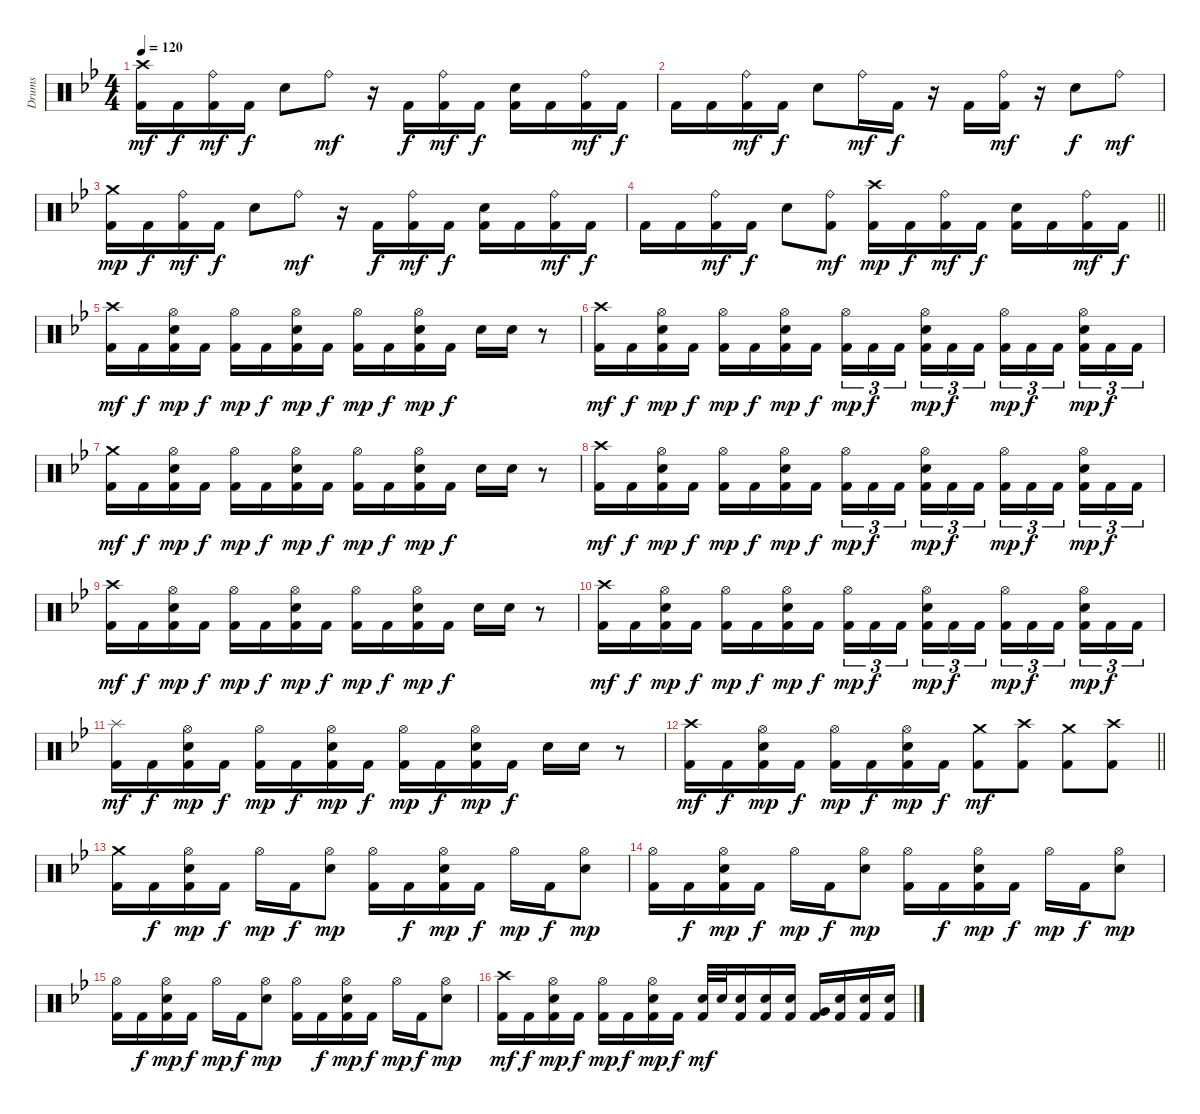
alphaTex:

\track ("Drums" "Drums") {instrument percussion}
\staff {score}
\articulation defaults
\ts (4 4)
\tempo 120
\clef neutral
\ks gminor
("Crash high (hit)" "Kick (hit) 2").16{dy mf} "Kick (hit) 2".16{dy f} ("Ride (bell)" "Kick (hit) 2").16{dy mf} "Kick (hit) 2".16{dy f} "Electric Snare (hit)".8 "Ride (bell)".8{dy mf} r.16 "Kick (hit) 2".16{dy f} ("Ride (bell)" "Kick (hit) 2").16{dy mf} "Kick (hit) 2".16{dy f} ("Electric Snare (hit)" "Kick (hit) 2").16 "Kick (hit) 2".16 ("Ride (bell)" "Kick (hit) 2").16{dy mf} "Kick (hit) 2".16{dy f} |
"Kick (hit) 2".16 "Kick (hit) 2".16 ("Ride (bell)" "Kick (hit) 2").16{dy mf} "Kick (hit) 2".16{dy f} "Electric Snare (hit)".8 "Ride (bell)".16{dy mf} "Kick (hit) 2".16{dy f} r.16 "Kick (hit) 2".16 ("Ride (bell)" "Kick (hit) 2").16{dy mf} r.16 "Electric Snare (hit)".8{dy f} "Ride (bell)".8{dy mf} |
("Crash medium (hit)" "Kick (hit) 2").16{dy mp} "Kick (hit) 2".16{dy f} ("Ride (bell)" "Kick (hit) 2").16{dy mf} "Kick (hit) 2".16{dy f} "Electric Snare (hit)".8 "Ride (bell)".8{dy mf} r.16 "Kick (hit) 2".16{dy f} ("Ride (bell)" "Kick (hit) 2").16{dy mf} "Kick (hit) 2".16{dy f} ("Electric Snare (hit)" "Kick (hit) 2").16 "Kick (hit) 2".16 ("Ride (bell)" "Kick (hit) 2").16{dy mf} "Kick (hit) 2".16{dy f} |
\barLineRight lightlight "Kick (hit) 2".16 "Kick (hit) 2".16
("Ride (bell)" "Kick (hit) 2").16{dy mf} "Kick (hit) 2".16{dy f} "Electric Snare (hit)".8 ("Ride (bell)" "Kick (hit) 2").8{dy mf} ("Crash high (hit)" "Kick (hit) 2").16{dy mp} "Kick (hit) 2".16{dy f} ("Ride (bell)" "Kick (hit) 2").16{dy mf} "Kick (hit) 2".16{dy f} ("Electric Snare (hit)" "Kick (hit) 2").16 "Kick (hit) 2".16 ("Ride (bell)" "Kick (hit) 2").16{dy mf} "Kick (hit) 2".16{dy f} |
\section ("" "")
("Crash high (hit)" "Kick (hit) 2").16{dy mf} "Kick (hit) 2".16{dy f} ("Hi-Hat (open)" "Electric Snare (hit)" "Kick (hit) 2").16{dy mp} "Kick (hit) 2".16{dy f} ("Hi-Hat (open)" "Kick (hit) 2").16{dy mp} "Kick (hit) 2".16{dy f} ("Hi-Hat (open)" "Electric Snare (hit)" "Kick (hit) 2").16{dy mp} "Kick (hit) 2".16{dy f} ("Hi-Hat (open)" "Kick (hit) 2").16{dy mp} "Kick (hit) 2".16{dy f} ("Hi-Hat (open)" "Electric Snare (hit)" "Kick (hit) 2").16{dy mp} "Kick (hit) 2".16{dy f} "Electric Snare (hit)".16 "Electric Snare (hit)".16 r.8 |
("Crash high (hit)" "Kick (hit) 2").16{dy mf} "Kick (hit) 2".16{dy f} ("Hi-Hat (open)" "Electric Snare (hit)" "Kick (hit) 2").16{dy mp} "Kick (hit) 2".16{dy f} ("Hi-Hat (open)" "Kick (hit) 2").16{dy mp} "Kick (hit) 2".16{dy f} ("Hi-Hat (open)" "Electric Snare (hit)" "Kick (hit) 2").16{dy mp} "Kick (hit) 2".16{dy f} ("Hi-Hat (open)" "Kick (hit) 2").16{tu (3 2) dy mp} "Kick (hit) 2".16{tu (3 2) dy f} "Kick (hit) 2".16{tu (3 2) beam splitsecondary} ("Hi-Hat (open)" "Electric Snare (hit)" "Kick (hit) 2").16{tu (3 2) dy mp} "Kick (hit) 2".16{tu (3 2) dy f} "Kick (hit) 2".16{tu (3 2)} ("Hi-Hat (open)" "Kick (hit) 2").16{tu (3 2) dy mp} "Kick (hit) 2".16{tu (3 2) dy f} "Kick (hit) 2".16{tu (3 2) beam splitsecondary} ("Hi-Hat (open)" "Electric Snare (hit)" "Kick (hit) 2").16{tu (3 2) dy mp} "Kick (hit) 2".16{tu (3 2) dy f} "Kick (hit) 2".16{tu (3 2)} |
("Crash medium (hit)" "Kick (hit) 2").16{dy mf} "Kick (hit) 2".16{dy f} ("Hi-Hat (open)" "Electric Snare (hit)" "Kick (hit) 2").16{dy mp} "Kick (hit) 2".16{dy f} ("Hi-Hat (open)" "Kick (hit) 2").16{dy mp} "Kick (hit) 2".16{dy f} ("Hi-Hat (open)" "Electric Snare (hit)" "Kick (hit) 2").16{dy mp} "Kick (hit) 2".16{dy f} ("Hi-Hat (open)" "Kick (hit) 2").16{dy mp} "Kick (hit) 2".16{dy f} ("Hi-Hat (open)" "Electric Snare (hit)" "Kick (hit) 2").16{dy mp} "Kick (hit) 2".16{dy f} "Electric Snare (hit)".16 "Electric Snare (hit)".16 r.8 |
("Crash high (hit)" "Kick (hit) 2").16{dy mf} "Kick (hit) 2".16{dy f} ("Hi-Hat (open)" "Electric Snare (hit)" "Kick (hit) 2").16{dy mp} "Kick (hit) 2".16{dy f} ("Hi-Hat (open)" "Kick (hit) 2").16{dy mp} "Kick (hit) 2".16{dy f} ("Hi-Hat (open)" "Electric Snare (hit)" "Kick (hit) 2").16{dy mp} "Kick (hit) 2".16{dy f} ("Hi-Hat (open)" "Kick (hit) 2").16{tu (3 2) dy mp} "Kick (hit) 2".16{tu (3 2) dy f} "Kick (hit) 2".16{tu (3 2) beam splitsecondary} ("Hi-Hat (open)" "Electric Snare (hit)" "Kick (hit) 2").16{tu (3 2) dy mp} "Kick (hit) 2".16{tu (3 2) dy f} "Kick (hit) 2".16{tu (3 2)} ("Hi-Hat (open)" "Kick (hit) 2").16{tu (3 2) dy mp} "Kick (hit) 2".16{tu (3 2) dy f} "Kick (hit) 2".16{tu (3 2) beam splitsecondary} ("Hi-Hat (open)" "Electric Snare (hit)" "Kick (hit) 2").16{tu (3 2) dy mp} "Kick (hit) 2".16{tu (3 2) dy f} "Kick (hit) 2".16{tu (3 2)} |
("Crash high (hit)" "Kick (hit) 2").16{dy mf} "Kick (hit) 2".16{dy f} ("Hi-Hat (open)" "Electric Snare (hit)" "Kick (hit) 2").16{dy mp} "Kick (hit) 2".16{dy f} ("Hi-Hat (open)" "Kick (hit) 2").16{dy mp} "Kick (hit) 2".16{dy f} ("Hi-Hat (open)" "Electric Snare (hit)" "Kick (hit) 2").16{dy mp} "Kick (hit) 2".16{dy f} ("Hi-Hat (open)" "Kick (hit) 2").16{dy mp} "Kick (hit) 2".16{dy f} ("Hi-Hat (open)" "Electric Snare (hit)" "Kick (hit) 2").16{dy mp} "Kick (hit) 2".16{dy f} "Electric Snare (hit)".16 "Electric Snare (hit)".16 r.8 |
("Crash high (hit)" "Kick (hit) 2").16{dy mf} "Kick (hit) 2".16{dy f} ("Hi-Hat (open)" "Electric Snare (hit)" "Kick (hit) 2").16{dy mp} "Kick (hit) 2".16{dy f} ("Hi-Hat (open)" "Kick (hit) 2").16{dy mp} "Kick (hit) 2".16{dy f} ("Hi-Hat (open)" "Electric Snare (hit)" "Kick (hit) 2").16{dy mp} "Kick (hit) 2".16{dy f} ("Hi-Hat (open)" "Kick (hit) 2").16{tu (3 2) dy mp} "Kick (hit) 2".16{tu (3 2) dy f} "Kick (hit) 2".16{tu (3 2) beam splitsecondary} ("Hi-Hat (open)" "Electric Snare (hit)" "Kick (hit) 2").16{tu (3 2) dy mp} "Kick (hit) 2".16{tu (3 2) dy f} "Kick (hit) 2".16{tu (3 2)} ("Hi-Hat (open)" "Kick (hit) 2").16{tu (3 2) dy mp} "Kick (hit) 2".16{tu (3 2) dy f} "Kick (hit) 2".16{tu (3 2) beam splitsecondary} ("Hi-Hat (open)" "Electric Snare (hit)" "Kick (hit) 2").16{tu (3 2) dy mp} "Kick (hit) 2".16{tu (3 2) dy f} "Kick (hit) 2".16{tu (3 2)} |
("Splash (hit)" "Kick (hit) 2").16{dy mf} "Kick (hit) 2".16{dy f} ("Hi-Hat (open)" "Electric Snare (hit)" "Kick (hit) 2").16{dy mp} "Kick (hit) 2".16{dy f} ("Hi-Hat (open)" "Kick (hit) 2").16{dy mp} "Kick (hit) 2".16{dy f} ("Hi-Hat (open)" "Electric Snare (hit)" "Kick (hit) 2").16{dy mp} "Kick (hit) 2".16{dy f} ("Hi-Hat (open)" "Kick (hit) 2").16{dy mp} "Kick (hit) 2".16{dy f} ("Hi-Hat (open)" "Electric Snare (hit)" "Kick (hit) 2").16{dy mp} "Kick (hit) 2".16{dy f} "Electric Snare (hit)".16 "Electric Snare (hit)".16 r.8 |
\barLineRight lightlight
("Crash high (hit)" "Kick (hit) 2").16{dy mf} "Kick (hit) 2".16{dy f} ("Hi-Hat (open)" "Electric Snare (hit)" "Kick (hit) 2").16{dy mp} "Kick (hit) 2".16{dy f} ("Hi-Hat (open)" "Kick (hit) 2").16{dy mp} "Kick (hit) 2".16{dy f} ("Hi-Hat (open)" "Electric Snare (hit)" "Kick (hit) 2").16{dy mp} "Kick (hit) 2".16{dy f} ("Crash medium (hit)" "Kick (hit) 2").8{dy mf} ("Crash high (hit)" "Kick (hit) 2").8 ("Crash medium (hit)" "Kick (hit) 2").8 ("Crash high (hit)" "Kick (hit) 2").8 |
\section ("" "")
("Crash medium (hit)" "Kick (hit) 2").16 "Kick (hit) 2".16{dy f} ("Hi-Hat (open)" "Electric Snare (hit)" "Kick (hit) 2").16{dy mp} "Kick (hit) 2".16{dy f} "Hi-Hat (open)".16{dy mp} "Kick (hit) 2".16{dy f} ("Hi-Hat (open)" "Electric Snare (hit)").8{dy mp} ("Hi-Hat (open)" "Kick (hit) 2").16 "Kick (hit) 2".16{dy f} ("Hi-Hat (open)" "Electric Snare (hit)" "Kick (hit) 2").16{dy mp} "Kick (hit) 2".16{dy f} "Hi-Hat (open)".16{dy mp} "Kick (hit) 2".16{dy f} ("Hi-Hat (open)" "Electric Snare (hit)").8{dy mp} |
("Hi-Hat (open)" "Kick (hit) 2").16 "Kick (hit) 2".16{dy f} ("Hi-Hat (open)" "Electric Snare (hit)" "Kick (hit) 2").16{dy mp} "Kick (hit) 2".16{dy f} "Hi-Hat (open)".16{dy mp} "Kick (hit) 2".16{dy f} ("Hi-Hat (open)" "Electric Snare (hit)").8{dy mp} ("Hi-Hat (open)" "Kick (hit) 2").16 "Kick (hit) 2".16{dy f} ("Hi-Hat (open)" "Electric Snare (hit)" "Kick (hit) 2").16{dy mp} "Kick (hit) 2".16{dy f} "Hi-Hat (open)".16{dy mp} "Kick (hit) 2".16{dy f} ("Hi-Hat (open)" "Electric Snare (hit)").8{dy mp} |
("Hi-Hat (open)" "Kick (hit) 2").16 "Kick (hit) 2".16{dy f} ("Hi-Hat (open)" "Electric Snare (hit)" "Kick (hit) 2").16{dy mp} "Kick (hit) 2".16{dy f} "Hi-Hat (open)".16{dy mp} "Kick (hit) 2".16{dy f} ("Hi-Hat (open)" "Electric Snare (hit)").8{dy mp} ("Hi-Hat (open)" "Kick (hit) 2").16 "Kick (hit) 2".16{dy f} ("Hi-Hat (open)" "Electric Snare (hit)" "Kick (hit) 2").16{dy mp} "Kick (hit) 2".16{dy f} "Hi-Hat (open)".16{dy mp} "Kick (hit) 2".16{dy f} ("Hi-Hat (open)" "Electric Snare (hit)").8{dy mp} |
("Crash high (hit)" "Kick (hit) 2").16{dy mf} "Kick (hit) 2".16{dy f} ("Hi-Hat (open)" "Electric Snare (hit)" "Kick (hit) 2").16{dy mp} "Kick (hit) 2".16{dy f} ("Hi-Hat (open)" "Kick (hit) 2").16{dy mp} "Kick (hit) 2".16{dy f} ("Hi-Hat (open)" "Electric Snare (hit)" "Kick (hit) 2").16{dy mp} "Kick (hit) 2".16{dy f} ("Electric Snare (hit)" "Kick (hit) 2").32{dy mf} "Electric Snare (hit)".32 ("Electric Snare (hit)" "Kick (hit) 2").16 ("Electric Snare (hit)" "Kick (hit) 2").16 ("Electric Snare (hit)" "Kick (hit) 2").16 ("Very Low Tom (hit)" "Kick (hit) 2").16 ("Electric Snare (hit)" "Kick (hit) 2").16 ("Electric Snare (hit)" "Kick (hit) 2").16 ("Electric Snare (hit)" "Kick (hit) 2").16
